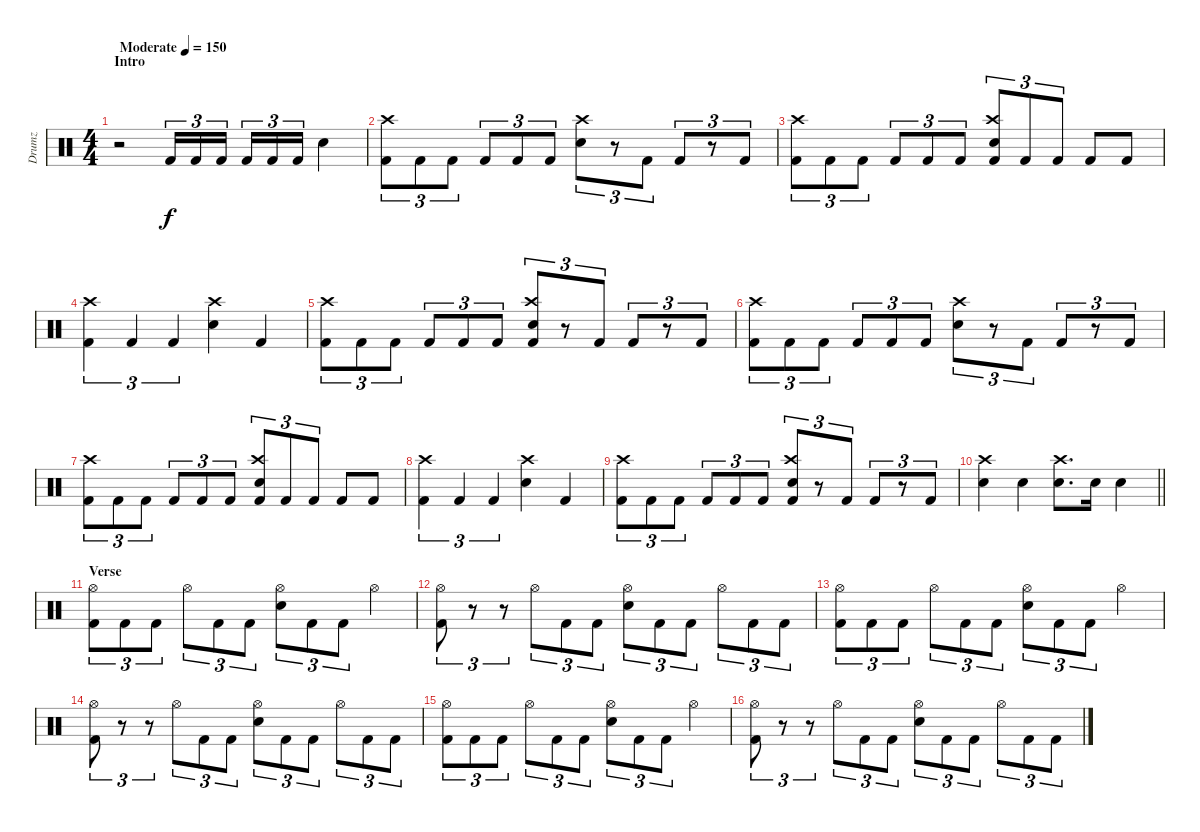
\track ("Drumz" "Drumz") {instrument percussion}
\staff {score}
\articulation defaults
\ts (4 4)
\section ("" "Intro")
\tempo (150 "Moderate")
\clef neutral
\ks c
r.2{dy f} "Kick (hit) 2".16{tu (3 2)} "Kick (hit) 2".16{tu (3 2)} "Kick (hit) 2".16{tu (3 2) beam splitsecondary} "Kick (hit) 2".16{tu (3 2)} "Kick (hit) 2".16{tu (3 2)} "Kick (hit) 2".16{tu (3 2)} "Electric Snare (hit)".4 |
("Kick (hit) 2" "Crash high (hit)").8{tu (3 2)} "Kick (hit) 2".8{tu (3 2)} "Kick (hit) 2".8{tu (3 2)} "Kick (hit) 2".8{tu (3 2)} "Kick (hit) 2".8{tu (3 2)} "Kick (hit) 2".8{tu (3 2)} ("Crash high (hit)" "Snare (hit) 2").8{tu (3 2)} r.8{tu (3 2)} "Kick (hit) 2".8{tu (3 2)} "Kick (hit) 2".8{tu (3 2)} r.8{tu (3 2)} "Kick (hit) 2".8{tu (3 2)} |
("Kick (hit) 2" "Crash high (hit)").8{tu (3 2)} "Kick (hit) 2".8{tu (3 2)} "Kick (hit) 2".8{tu (3 2)} "Kick (hit) 2".8{tu (3 2)} "Kick (hit) 2".8{tu (3 2)} "Kick (hit) 2".8{tu (3 2)} ("Crash high (hit)" "Snare (hit) 2" "Kick (hit) 2").8{tu (3 2)} "Kick (hit) 2".8{tu (3 2)} "Kick (hit) 2".8{tu (3 2)} "Kick (hit) 2".8 "Kick (hit) 2".8 |
("Crash high (hit)" "Kick (hit) 2").4{tu (3 2)} "Kick (hit) 2".4{tu (3 2)} "Kick (hit) 2".4{tu (3 2)} ("Crash high (hit)" "Snare (hit) 2").4 "Kick (hit) 2".4 |
("Kick (hit) 2" "Crash high (hit)").8{tu (3 2)} "Kick (hit) 2".8{tu (3 2)} "Kick (hit) 2".8{tu (3 2)} "Kick (hit) 2".8{tu (3 2)} "Kick (hit) 2".8{tu (3 2)} "Kick (hit) 2".8{tu (3 2)} ("Crash high (hit)" "Snare (hit) 2" "Kick (hit) 2").8{tu (3 2)} r.8{tu (3 2)} "Kick (hit) 2".8{tu (3 2)} "Kick (hit) 2".8{tu (3 2)} r.8{tu (3 2)} "Kick (hit) 2".8{tu (3 2)} |
("Kick (hit) 2" "Crash high (hit)").8{tu (3 2)} "Kick (hit) 2".8{tu (3 2)} "Kick (hit) 2".8{tu (3 2)} "Kick (hit) 2".8{tu (3 2)} "Kick (hit) 2".8{tu (3 2)} "Kick (hit) 2".8{tu (3 2)} ("Crash high (hit)" "Snare (hit) 2").8{tu (3 2)} r.8{tu (3 2)} "Kick (hit) 2".8{tu (3 2)} "Kick (hit) 2".8{tu (3 2)} r.8{tu (3 2)} "Kick (hit) 2".8{tu (3 2)} |
("Kick (hit) 2" "Crash high (hit)").8{tu (3 2)} "Kick (hit) 2".8{tu (3 2)} "Kick (hit) 2".8{tu (3 2)} "Kick (hit) 2".8{tu (3 2)} "Kick (hit) 2".8{tu (3 2)} "Kick (hit) 2".8{tu (3 2)} ("Crash high (hit)" "Snare (hit) 2" "Kick (hit) 2").8{tu (3 2)} "Kick (hit) 2".8{tu (3 2)} "Kick (hit) 2".8{tu (3 2)} "Kick (hit) 2".8 "Kick (hit) 2".8 |
("Crash high (hit)" "Kick (hit) 2").4{tu (3 2)} "Kick (hit) 2".4{tu (3 2)} "Kick (hit) 2".4{tu (3 2)} ("Crash high (hit)" "Snare (hit) 2").4 "Kick (hit) 2".4 |
("Kick (hit) 2" "Crash high (hit)").8{tu (3 2)} "Kick (hit) 2".8{tu (3 2)} "Kick (hit) 2".8{tu (3 2)} "Kick (hit) 2".8{tu (3 2)} "Kick (hit) 2".8{tu (3 2)} "Kick (hit) 2".8{tu (3 2)} ("Crash high (hit)" "Snare (hit) 2" "Kick (hit) 2").8{tu (3 2)} r.8{tu (3 2)} "Kick (hit) 2".8{tu (3 2)} "Kick (hit) 2".8{tu (3 2)} r.8{tu (3 2)} "Kick (hit) 2".8{tu (3 2)} |
\barLineRight lightlight
("Snare (hit) 2" "Crash high (hit)").4 "Snare (hit) 2".4 ("Snare (hit) 2" "Crash high (hit)").8{d} "Snare (hit) 2".16 "Snare (hit) 2".4 |
\section ("" "Verse")
("Hi-Hat (open)" "Kick (hit) 2").8{tu (3 2)} "Kick (hit) 2".8{tu (3 2)} "Kick (hit) 2".8{tu (3 2)} "Hi-Hat (open)".8{tu (3 2)} "Kick (hit) 2".8{tu (3 2)} "Kick (hit) 2".8{tu (3 2)} ("Hi-Hat (open)" "Snare (hit) 2").8{tu (3 2)} "Kick (hit) 2".8{tu (3 2)} "Kick (hit) 2".8{tu (3 2)} "Hi-Hat (open)".4 |
("Hi-Hat (open)" "Kick (hit) 2").8{tu (3 2)} r.8{tu (3 2)} r.8{tu (3 2)} "Hi-Hat (open)".8{tu (3 2)} "Kick (hit) 2".8{tu (3 2)} "Kick (hit) 2".8{tu (3 2)} ("Hi-Hat (open)" "Snare (hit) 2").8{tu (3 2)} "Kick (hit) 2".8{tu (3 2)} "Kick (hit) 2".8{tu (3 2)} "Hi-Hat (open)".8{tu (3 2)} "Kick (hit) 2".8{tu (3 2)} "Kick (hit) 2".8{tu (3 2)} |
("Hi-Hat (open)" "Kick (hit) 2").8{tu (3 2)} "Kick (hit) 2".8{tu (3 2)} "Kick (hit) 2".8{tu (3 2)} "Hi-Hat (open)".8{tu (3 2)} "Kick (hit) 2".8{tu (3 2)} "Kick (hit) 2".8{tu (3 2)} ("Hi-Hat (open)" "Snare (hit) 2").8{tu (3 2)} "Kick (hit) 2".8{tu (3 2)} "Kick (hit) 2".8{tu (3 2)} "Hi-Hat (open)".4 |
("Hi-Hat (open)" "Kick (hit) 2").8{tu (3 2)} r.8{tu (3 2)} r.8{tu (3 2)} "Hi-Hat (open)".8{tu (3 2)} "Kick (hit) 2".8{tu (3 2)} "Kick (hit) 2".8{tu (3 2)} ("Hi-Hat (open)" "Snare (hit) 2").8{tu (3 2)} "Kick (hit) 2".8{tu (3 2)} "Kick (hit) 2".8{tu (3 2)} "Hi-Hat (open)".8{tu (3 2)} "Kick (hit) 2".8{tu (3 2)} "Kick (hit) 2".8{tu (3 2)} |
("Hi-Hat (open)" "Kick (hit) 2").8{tu (3 2)} "Kick (hit) 2".8{tu (3 2)} "Kick (hit) 2".8{tu (3 2)} "Hi-Hat (open)".8{tu (3 2)} "Kick (hit) 2".8{tu (3 2)} "Kick (hit) 2".8{tu (3 2)} ("Hi-Hat (open)" "Snare (hit) 2").8{tu (3 2)} "Kick (hit) 2".8{tu (3 2)} "Kick (hit) 2".8{tu (3 2)} "Hi-Hat (open)".4 |
("Hi-Hat (open)" "Kick (hit) 2").8{tu (3 2)} r.8{tu (3 2)} r.8{tu (3 2)} "Hi-Hat (open)".8{tu (3 2)} "Kick (hit) 2".8{tu (3 2)} "Kick (hit) 2".8{tu (3 2)} ("Hi-Hat (open)" "Snare (hit) 2").8{tu (3 2)} "Kick (hit) 2".8{tu (3 2)} "Kick (hit) 2".8{tu (3 2)} "Hi-Hat (open)".8{tu (3 2)} "Kick (hit) 2".8{tu (3 2)} "Kick (hit) 2".8{tu (3 2)}
